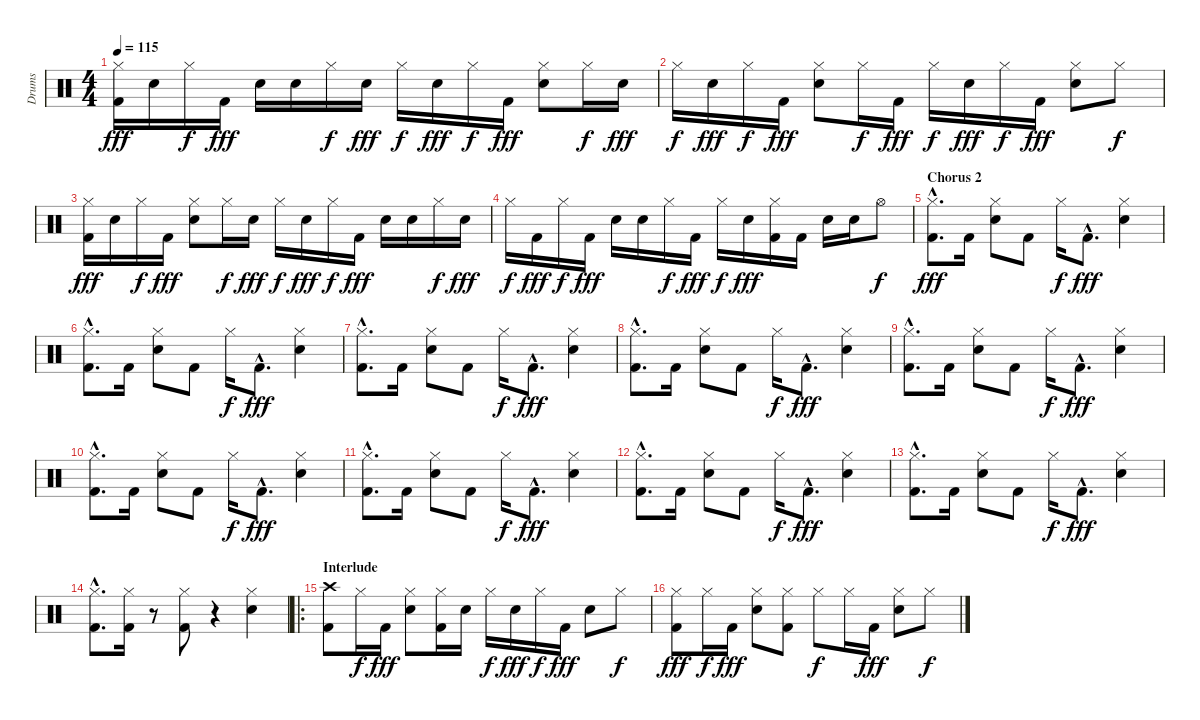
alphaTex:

\track ("Drums" "Drums") {instrument percussion}
\staff {score}
\articulation defaults
\ts (4 4)
\tempo 115
\clef neutral
\ks c
("Hi-Hat (closed)" "Kick (hit) 2").16{dy fff} "Electric Snare (hit)".16 "Hi-Hat (closed)".16{dy f} "Kick (hit) 2".16{dy fff} "Electric Snare (hit)".16 "Electric Snare (hit)".16 "Hi-Hat (closed)".16{dy f} "Electric Snare (hit)".16{dy fff} "Hi-Hat (closed)".16{dy f} "Electric Snare (hit)".16{dy fff} "Hi-Hat (closed)".16{dy f} "Kick (hit) 2".16{dy fff} ("Hi-Hat (closed)" "Electric Snare (hit)").8 "Hi-Hat (closed)".16{dy f} "Electric Snare (hit)".16{dy fff} |
"Hi-Hat (closed)".16{dy f} "Electric Snare (hit)".16{dy fff} "Hi-Hat (closed)".16{dy f} "Kick (hit) 2".16{dy fff} ("Hi-Hat (closed)" "Electric Snare (hit)").8 "Hi-Hat (closed)".16{dy f} "Kick (hit) 2".16{dy fff} "Hi-Hat (closed)".16{dy f} "Electric Snare (hit)".16{dy fff} "Hi-Hat (closed)".16{dy f} "Kick (hit) 2".16{dy fff} ("Hi-Hat (closed)" "Electric Snare (hit)").8 "Hi-Hat (closed)".8{dy f} |
("Hi-Hat (closed)" "Kick (hit) 2").16{dy fff} "Electric Snare (hit)".16 "Hi-Hat (closed)".16{dy f} "Kick (hit) 2".16{dy fff} ("Hi-Hat (closed)" "Electric Snare (hit)").8 "Hi-Hat (closed)".16{dy f} "Electric Snare (hit)".16{dy fff} "Hi-Hat (closed)".16{dy f} "Electric Snare (hit)".16{dy fff} "Hi-Hat (closed)".16{dy f} "Kick (hit) 2".16{dy fff} "Electric Snare (hit)".16 "Electric Snare (hit)".16 "Hi-Hat (closed)".16{dy f} "Electric Snare (hit)".16{dy fff} |
"Hi-Hat (closed)".16{dy f} "Kick (hit) 2".16{dy fff} "Hi-Hat (closed)".16{dy f} "Kick (hit) 2".16{dy fff} "Electric Snare (hit)".16 "Electric Snare (hit)".16 "Hi-Hat (closed)".16{dy f} "Kick (hit) 2".16{dy fff} "Hi-Hat (closed)".16{dy f} "Electric Snare (hit)".16{dy fff} ("Hi-Hat (closed)" "Kick (hit) 2").16 "Kick (hit) 2".16 "Electric Snare (hit)".16 "Electric Snare (hit)".16 "Hi-Hat (open)".8{dy f} |
\section ("" "Chorus 2")
("Hi-Hat (closed)"{hac} "Kick (hit) 2"{hac}).8{d dy fff} "Kick (hit) 2".16 ("Hi-Hat (closed)" "Electric Snare (hit)").8 "Kick (hit) 2".8 "Hi-Hat (closed)".16{dy f} "Kick (hit) 2"{hac}.8{d dy fff} ("Hi-Hat (closed)" "Electric Snare (hit)").4 |
("Hi-Hat (closed)"{hac} "Kick (hit) 2"{hac}).8{d} "Kick (hit) 2".16 ("Hi-Hat (closed)" "Electric Snare (hit)").8 "Kick (hit) 2".8 "Hi-Hat (closed)".16{dy f} "Kick (hit) 2"{hac}.8{d dy fff} ("Hi-Hat (closed)" "Electric Snare (hit)").4 |
("Hi-Hat (closed)"{hac} "Kick (hit) 2"{hac}).8{d} "Kick (hit) 2".16 ("Hi-Hat (closed)" "Electric Snare (hit)").8 "Kick (hit) 2".8 "Hi-Hat (closed)".16{dy f} "Kick (hit) 2"{hac}.8{d dy fff} ("Hi-Hat (closed)" "Electric Snare (hit)").4 |
("Hi-Hat (closed)"{hac} "Kick (hit) 2"{hac}).8{d} "Kick (hit) 2".16 ("Hi-Hat (closed)" "Electric Snare (hit)").8 "Kick (hit) 2".8 "Hi-Hat (closed)".16{dy f} "Kick (hit) 2"{hac}.8{d dy fff} ("Hi-Hat (closed)" "Electric Snare (hit)").4 |
("Hi-Hat (closed)"{hac} "Kick (hit) 2"{hac}).8{d} "Kick (hit) 2".16 ("Hi-Hat (closed)" "Electric Snare (hit)").8 "Kick (hit) 2".8 "Hi-Hat (closed)".16{dy f} "Kick (hit) 2"{hac}.8{d dy fff} ("Hi-Hat (closed)" "Electric Snare (hit)").4 |
("Hi-Hat (closed)"{hac} "Kick (hit) 2"{hac}).8{d} "Kick (hit) 2".16 ("Hi-Hat (closed)" "Electric Snare (hit)").8 "Kick (hit) 2".8 "Hi-Hat (closed)".16{dy f} "Kick (hit) 2"{hac}.8{d dy fff} ("Hi-Hat (closed)" "Electric Snare (hit)").4 |
("Hi-Hat (closed)"{hac} "Kick (hit) 2"{hac}).8{d} "Kick (hit) 2".16 ("Hi-Hat (closed)" "Electric Snare (hit)").8 "Kick (hit) 2".8 "Hi-Hat (closed)".16{dy f} "Kick (hit) 2"{hac}.8{d dy fff} ("Hi-Hat (closed)" "Electric Snare (hit)").4 |
("Hi-Hat (closed)"{hac} "Kick (hit) 2"{hac}).8{d} "Kick (hit) 2".16 ("Hi-Hat (closed)" "Electric Snare (hit)").8 "Kick (hit) 2".8 "Hi-Hat (closed)".16{dy f} "Kick (hit) 2"{hac}.8{d dy fff} ("Hi-Hat (closed)" "Electric Snare (hit)").4 |
("Hi-Hat (closed)"{hac} "Kick (hit) 2"{hac}).8{d} "Kick (hit) 2".16 ("Hi-Hat (closed)" "Electric Snare (hit)").8 "Kick (hit) 2".8 "Hi-Hat (closed)".16{dy f} "Kick (hit) 2"{hac}.8{d dy fff} ("Hi-Hat (closed)" "Electric Snare (hit)").4 |
("Hi-Hat (closed)"{hac} "Kick (hit) 2"{hac}).8{d} ("Hi-Hat (closed)" "Kick (hit) 2").16 r.8 ("Hi-Hat (closed)" "Kick (hit) 2").8 r.4 ("Hi-Hat (closed)" "Electric Snare (hit)").4 |
\ro
\section ("" "Interlude")
("Crash high (hit)" "Kick (hit) 2").8 "Hi-Hat (closed)".16{dy f} "Kick (hit) 2".16{dy fff} ("Hi-Hat (closed)" "Electric Snare (hit)").8 ("Hi-Hat (closed)" "Kick (hit) 2").16 "Electric Snare (hit)".16 "Hi-Hat (closed)".16{dy f} "Electric Snare (hit)".16{dy fff} "Hi-Hat (closed)".16{dy f} "Kick (hit) 2".16{dy fff} "Electric Snare (hit)".8 "Hi-Hat (closed)".8{dy f} |
("Hi-Hat (closed)" "Kick (hit) 2").8{dy fff} "Hi-Hat (closed)".16{dy f} "Kick (hit) 2".16{dy fff} ("Hi-Hat (closed)" "Electric Snare (hit)").8 ("Hi-Hat (closed)" "Kick (hit) 2").8 "Hi-Hat (closed)".8{dy f} "Hi-Hat (closed)".16 "Kick (hit) 2".16{dy fff} ("Hi-Hat (closed)" "Electric Snare (hit)").8 "Hi-Hat (closed)".8{dy f}
